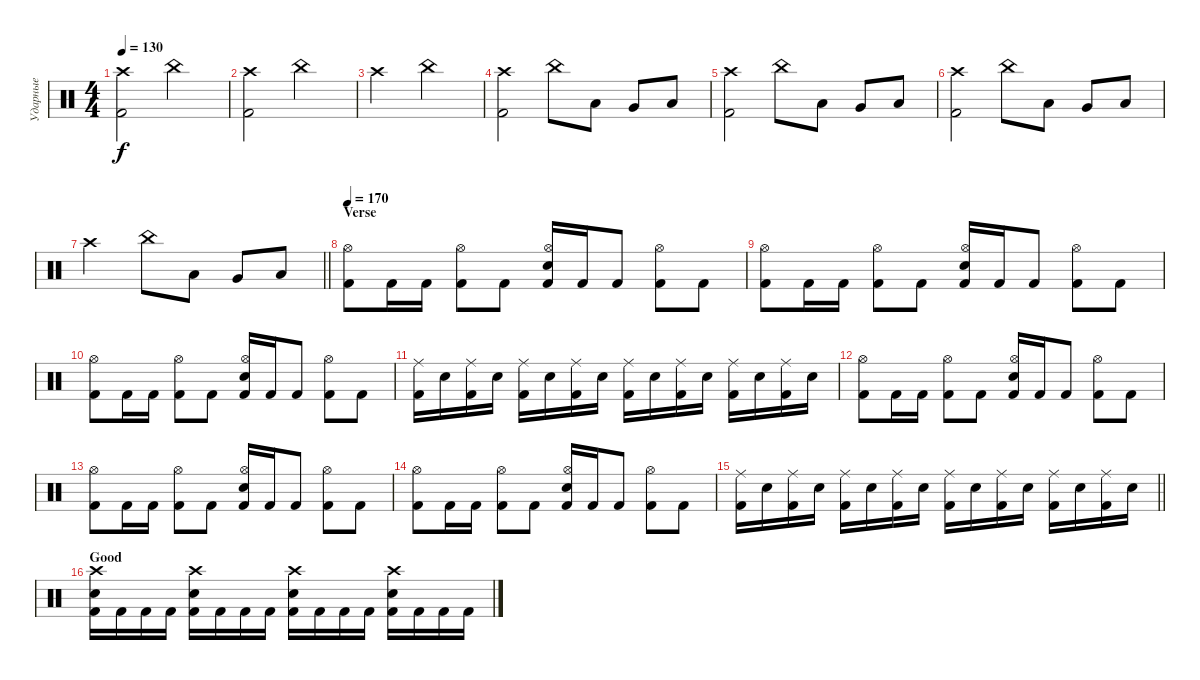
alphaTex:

\track ("Ударные" "Ударные") {instrument percussion}
\staff {score}
\articulation defaults
\ts (4 4)
\tempo 130
\clef neutral
\ks c
("Crash high (hit)" "Kick (hit) 2").2{dy f} "China (hit)".2 |
("Crash high (hit)" "Kick (hit) 2").2 "China (hit)".2 |
"Crash high (hit)".2 "China (hit)".2 |
("Crash high (hit)" "Kick (hit) 2").2 "China (hit)".8 "Low Tom (hit)".8 "Very Low Tom (hit)".8 "Low Floor Tom (hit)".8 |
("Crash high (hit)" "Kick (hit) 2").2 "China (hit)".8 "Low Tom (hit)".8 "Very Low Tom (hit)".8 "Low Floor Tom (hit)".8 |
("Crash high (hit)" "Kick (hit) 2").2 "China (hit)".8 "Low Tom (hit)".8 "Very Low Tom (hit)".8 "Low Floor Tom (hit)".8 |
\barLineRight lightlight "Crash high (hit)".2 "China (hit)".8 "Low Tom (hit)".8 "Very Low Tom (hit)".8 "Low Floor Tom (hit)".8
|
\section ("" "Verse")
\tempo 170
("Hi-Hat (open)" "Kick (hit) 2").8 "Kick (hit) 2".16 "Kick (hit) 2".16 ("Hi-Hat (open)" "Kick (hit) 2").8 "Kick (hit) 2".8 ("Hi-Hat (open)" "Electric Snare (hit)" "Kick (hit) 2").16 "Kick (hit) 2".16 "Kick (hit) 2".8 ("Hi-Hat (open)" "Kick (hit) 2").8 "Kick (hit) 2".8 |
("Hi-Hat (open)" "Kick (hit) 2").8 "Kick (hit) 2".16 "Kick (hit) 2".16 ("Hi-Hat (open)" "Kick (hit) 2").8 "Kick (hit) 2".8 ("Hi-Hat (open)" "Electric Snare (hit)" "Kick (hit) 2").16 "Kick (hit) 2".16 "Kick (hit) 2".8 ("Hi-Hat (open)" "Kick (hit) 2").8 "Kick (hit) 2".8 |
("Hi-Hat (open)" "Kick (hit) 2").8 "Kick (hit) 2".16 "Kick (hit) 2".16 ("Hi-Hat (open)" "Kick (hit) 2").8 "Kick (hit) 2".8 ("Hi-Hat (open)" "Electric Snare (hit)" "Kick (hit) 2").16 "Kick (hit) 2".16 "Kick (hit) 2".8 ("Hi-Hat (open)" "Kick (hit) 2").8 "Kick (hit) 2".8 |
("Ride (middle)" "Kick (hit) 2").16 "Electric Snare (hit)".16 ("Ride (middle)" "Kick (hit) 2").16 "Electric Snare (hit)".16 ("Ride (middle)" "Kick (hit) 2").16 "Electric Snare (hit)".16 ("Ride (middle)" "Kick (hit) 2").16 "Electric Snare (hit)".16 ("Ride (middle)" "Kick (hit) 2").16 "Electric Snare (hit)".16 ("Ride (middle)" "Kick (hit) 2").16 "Electric Snare (hit)".16 ("Ride (middle)" "Kick (hit) 2").16 "Electric Snare (hit)".16 ("Ride (middle)" "Kick (hit) 2").16 "Electric Snare (hit)".16 |
("Hi-Hat (open)" "Kick (hit) 2").8 "Kick (hit) 2".16 "Kick (hit) 2".16 ("Hi-Hat (open)" "Kick (hit) 2").8 "Kick (hit) 2".8 ("Hi-Hat (open)" "Electric Snare (hit)" "Kick (hit) 2").16 "Kick (hit) 2".16 "Kick (hit) 2".8 ("Hi-Hat (open)" "Kick (hit) 2").8 "Kick (hit) 2".8 |
("Hi-Hat (open)" "Kick (hit) 2").8 "Kick (hit) 2".16 "Kick (hit) 2".16 ("Hi-Hat (open)" "Kick (hit) 2").8 "Kick (hit) 2".8 ("Hi-Hat (open)" "Electric Snare (hit)" "Kick (hit) 2").16 "Kick (hit) 2".16 "Kick (hit) 2".8 ("Hi-Hat (open)" "Kick (hit) 2").8 "Kick (hit) 2".8 |
("Hi-Hat (open)" "Kick (hit) 2").8 "Kick (hit) 2".16 "Kick (hit) 2".16 ("Hi-Hat (open)" "Kick (hit) 2").8 "Kick (hit) 2".8 ("Hi-Hat (open)" "Electric Snare (hit)" "Kick (hit) 2").16 "Kick (hit) 2".16 "Kick (hit) 2".8 ("Hi-Hat (open)" "Kick (hit) 2").8 "Kick (hit) 2".8 |
\barLineRight lightlight
("Ride (middle)" "Kick (hit) 2").16 "Electric Snare (hit)".16 ("Ride (middle)" "Kick (hit) 2").16 "Electric Snare (hit)".16 ("Ride (middle)" "Kick (hit) 2").16 "Electric Snare (hit)".16 ("Ride (middle)" "Kick (hit) 2").16 "Electric Snare (hit)".16 ("Ride (middle)" "Kick (hit) 2").16 "Electric Snare (hit)".16 ("Ride (middle)" "Kick (hit) 2").16 "Electric Snare (hit)".16 ("Ride (middle)" "Kick (hit) 2").16 "Electric Snare (hit)".16 ("Ride (middle)" "Kick (hit) 2").16 "Electric Snare (hit)".16 |
\section ("" "Good")
("Crash high (hit)" "Electric Snare (hit)" "Kick (hit) 2").16 "Kick (hit) 2".16 "Kick (hit) 2".16 "Kick (hit) 2".16 ("Crash high (hit)" "Electric Snare (hit)" "Kick (hit) 2").16 "Kick (hit) 2".16 "Kick (hit) 2".16 "Kick (hit) 2".16 ("Crash high (hit)" "Electric Snare (hit)" "Kick (hit) 2").16 "Kick (hit) 2".16 "Kick (hit) 2".16 "Kick (hit) 2".16 ("Crash high (hit)" "Electric Snare (hit)" "Kick (hit) 2").16 "Kick (hit) 2".16 "Kick (hit) 2".16 "Kick (hit) 2".16
